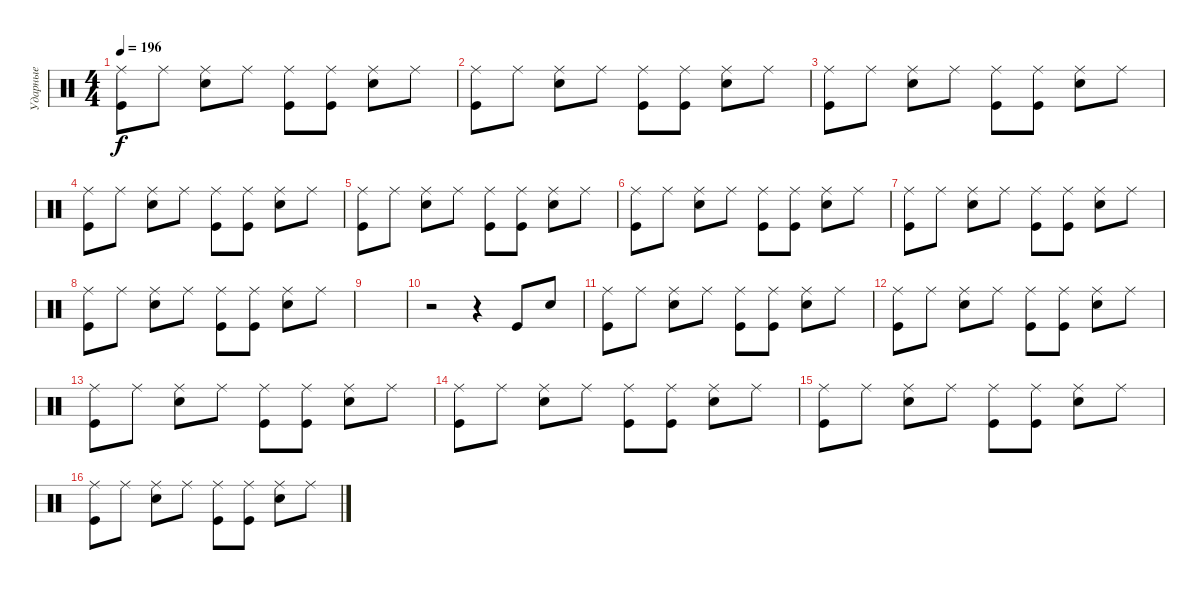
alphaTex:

\track ("Ударные" "Ударные") {instrument percussion}
\staff {score}
\articulation defaults
\ts (4 4)
\tempo 196
\clef neutral
\ks c
("Ride (middle)" "Kick (hit)").8{dy f} "Ride (middle)".8 ("Ride (middle)" "Electric Snare (hit)").8 "Ride (middle)".8 ("Ride (middle)" "Kick (hit)").8 ("Ride (middle)" "Kick (hit)").8 ("Ride (middle)" "Electric Snare (hit)").8 "Ride (middle)".8 |
("Ride (middle)" "Kick (hit)").8 "Ride (middle)".8 ("Ride (middle)" "Electric Snare (hit)").8 "Ride (middle)".8 ("Ride (middle)" "Kick (hit)").8 ("Ride (middle)" "Kick (hit)").8 ("Ride (middle)" "Electric Snare (hit)").8 "Ride (middle)".8 |
("Ride (middle)" "Kick (hit)").8 "Ride (middle)".8 ("Ride (middle)" "Electric Snare (hit)").8 "Ride (middle)".8 ("Ride (middle)" "Kick (hit)").8 ("Ride (middle)" "Kick (hit)").8 ("Ride (middle)" "Electric Snare (hit)").8 "Ride (middle)".8 |
("Ride (middle)" "Kick (hit)").8 "Ride (middle)".8 ("Ride (middle)" "Electric Snare (hit)").8 "Ride (middle)".8 ("Ride (middle)" "Kick (hit)").8 ("Ride (middle)" "Kick (hit)").8 ("Ride (middle)" "Electric Snare (hit)").8 "Ride (middle)".8 |
("Ride (middle)" "Kick (hit)").8 "Ride (middle)".8 ("Ride (middle)" "Electric Snare (hit)").8 "Ride (middle)".8 ("Ride (middle)" "Kick (hit)").8 ("Ride (middle)" "Kick (hit)").8 ("Ride (middle)" "Electric Snare (hit)").8 "Ride (middle)".8 |
("Ride (middle)" "Kick (hit)").8 "Ride (middle)".8 ("Ride (middle)" "Electric Snare (hit)").8 "Ride (middle)".8 ("Ride (middle)" "Kick (hit)").8 ("Ride (middle)" "Kick (hit)").8 ("Ride (middle)" "Electric Snare (hit)").8 "Ride (middle)".8 |
("Ride (middle)" "Kick (hit)").8 "Ride (middle)".8 ("Ride (middle)" "Electric Snare (hit)").8 "Ride (middle)".8 ("Ride (middle)" "Kick (hit)").8 ("Ride (middle)" "Kick (hit)").8 ("Ride (middle)" "Electric Snare (hit)").8 "Ride (middle)".8 |
("Ride (middle)" "Kick (hit)").8 "Ride (middle)".8 ("Ride (middle)" "Electric Snare (hit)").8 "Ride (middle)".8 ("Ride (middle)" "Kick (hit)").8 ("Ride (middle)" "Kick (hit)").8 ("Ride (middle)" "Electric Snare (hit)").8 "Ride (middle)".8 |
|
r.2 r.4 "Kick (hit)".8 "Electric Snare (hit)".8 |
("Ride (middle)" "Kick (hit)").8 "Ride (middle)".8 ("Ride (middle)" "Electric Snare (hit)").8 "Ride (middle)".8 ("Ride (middle)" "Kick (hit)").8 ("Ride (middle)" "Kick (hit)").8 ("Ride (middle)" "Electric Snare (hit)").8 "Ride (middle)".8 |
("Ride (middle)" "Kick (hit)").8 "Ride (middle)".8 ("Ride (middle)" "Electric Snare (hit)").8 "Ride (middle)".8 ("Ride (middle)" "Kick (hit)").8 ("Ride (middle)" "Kick (hit)").8 ("Ride (middle)" "Electric Snare (hit)").8 "Ride (middle)".8 |
("Ride (middle)" "Kick (hit)").8 "Ride (middle)".8 ("Ride (middle)" "Electric Snare (hit)").8 "Ride (middle)".8 ("Ride (middle)" "Kick (hit)").8 ("Ride (middle)" "Kick (hit)").8 ("Ride (middle)" "Electric Snare (hit)").8 "Ride (middle)".8 |
("Ride (middle)" "Kick (hit)").8 "Ride (middle)".8 ("Ride (middle)" "Electric Snare (hit)").8 "Ride (middle)".8 ("Ride (middle)" "Kick (hit)").8 ("Ride (middle)" "Kick (hit)").8 ("Ride (middle)" "Electric Snare (hit)").8 "Ride (middle)".8 |
("Ride (middle)" "Kick (hit)").8 "Ride (middle)".8 ("Ride (middle)" "Electric Snare (hit)").8 "Ride (middle)".8 ("Ride (middle)" "Kick (hit)").8 ("Ride (middle)" "Kick (hit)").8 ("Ride (middle)" "Electric Snare (hit)").8 "Ride (middle)".8 |
("Ride (middle)" "Kick (hit)").8 "Ride (middle)".8 ("Ride (middle)" "Electric Snare (hit)").8 "Ride (middle)".8 ("Ride (middle)" "Kick (hit)").8 ("Ride (middle)" "Kick (hit)").8 ("Ride (middle)" "Electric Snare (hit)").8 "Ride (middle)".8
